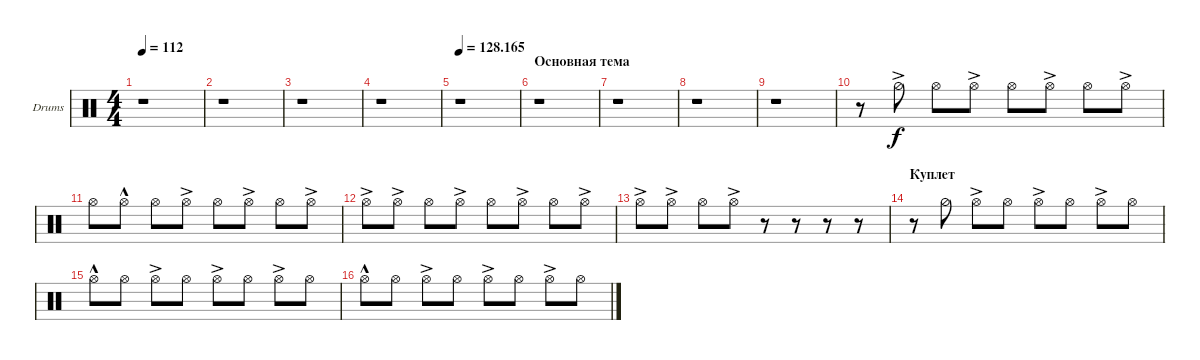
\defaultSystemsLayout 4
\bracketExtendMode groupsimilarinstruments
\firstSystemTrackNameOrientation horizontal
\otherSystemsTrackNameOrientation horizontal
\track ("Drumkit" "Drums") {instrument percussion}
\staff {score}
\articulation defaults
\ts (4 4)
\tempo 112
\clef neutral
\scale
0.333333
\ks c
r.1{dy f} |
\scale
0.333333 r.1 |
\scale
0.333333 r.1 |
\scale
0.333333 r.1 |
\tempo
128.165
\scale
0.333333 r.1 |
\section ("" "Основная тема")
\scale
0.333333 r.1 |
\scale
0.333333 r.1 |
\scale
0.333333 r.1 |
\scale
0.333333 r.1 |
\scale
0.333333 r.8 "Hi-Hat (half)"{ac}.8 "Hi-Hat (open)".8 "Hi-Hat (open)"{ac}.8 "Hi-Hat (open)".8 "Hi-Hat (open)"{ac}.8 "Hi-Hat (open)".8 "Hi-Hat (open)"{ac}.8 |
\scale
0.333333 "Hi-Hat (open)".8 "Hi-Hat (open)"{hac}.8 "Hi-Hat (open)".8 "Hi-Hat (open)"{ac}.8 "Hi-Hat (open)".8 "Hi-Hat (open)"{ac}.8 "Hi-Hat (open)".8 "Hi-Hat (open)"{ac}.8 |
"Hi-Hat (open)"{ac}.8 "Hi-Hat (open)"{ac}.8 "Hi-Hat (open)".8 "Hi-Hat (open)"{ac}.8 "Hi-Hat (open)".8 "Hi-Hat (open)"{ac}.8 "Hi-Hat (open)".8 "Hi-Hat (open)"{ac}.8 |
"Hi-Hat (open)"{ac}.8 "Hi-Hat (open)"{ac}.8 "Hi-Hat (open)".8 "Hi-Hat (open)"{ac}.8 r.8 r.8 r.8 r.8 |
\section ("" "Куплет")
r.8 "Hi-Hat (half)".8 "Hi-Hat (open)"{ac}.8 "Hi-Hat (open)".8 "Hi-Hat (open)"{ac}.8 "Hi-Hat (open)".8 "Hi-Hat (open)"{ac}.8 "Hi-Hat (open)".8 |
"Hi-Hat (open)"{hac}.8 "Hi-Hat (open)".8 "Hi-Hat (open)"{ac}.8 "Hi-Hat (open)".8 "Hi-Hat (open)"{ac}.8 "Hi-Hat (open)".8 "Hi-Hat (open)"{ac}.8 "Hi-Hat (open)".8 |
"Hi-Hat (open)"{hac}.8 "Hi-Hat (open)".8 "Hi-Hat (open)"{ac}.8 "Hi-Hat (open)".8 "Hi-Hat (open)"{ac}.8 "Hi-Hat (open)".8 "Hi-Hat (open)"{ac}.8 "Hi-Hat (open)".8
